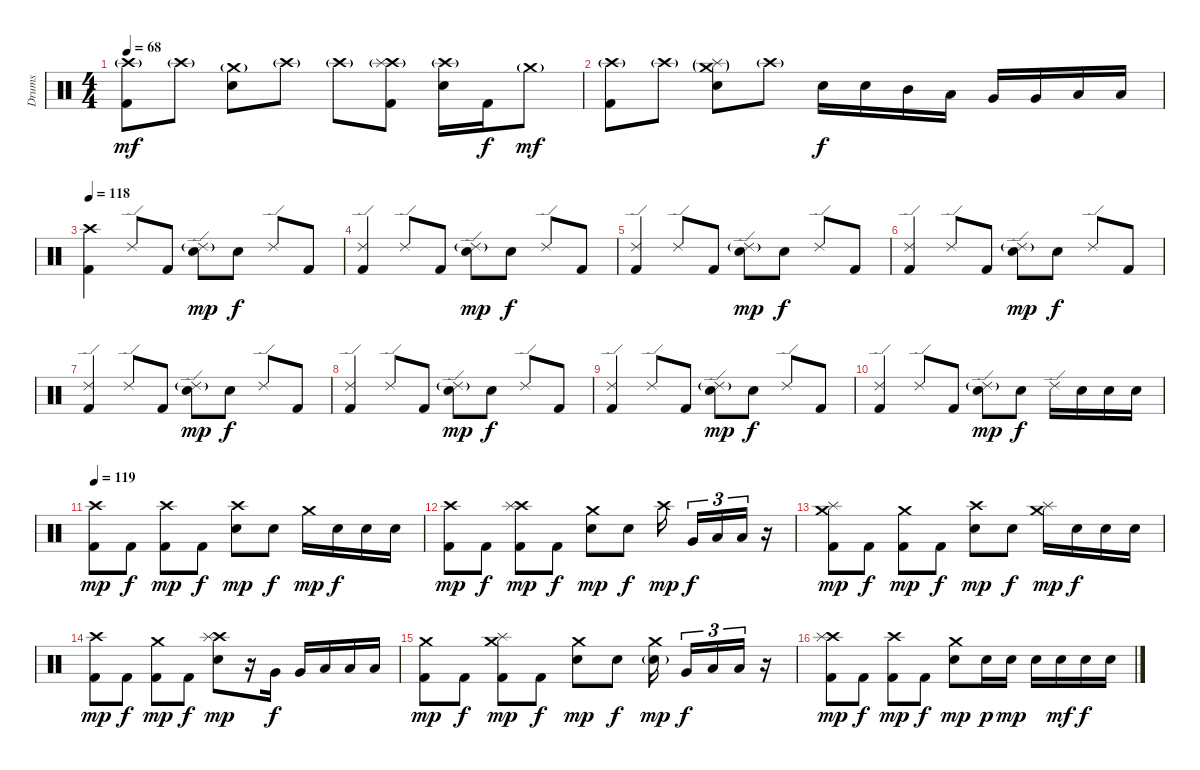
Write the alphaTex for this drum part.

\track ("Drums" "Drums") {instrument percussion}
\staff {score}
\articulation defaults
\ts (4 4)
\tempo 68
\clef neutral
\ks c
("Crash high (hit)"{g} "Kick (hit) 2").8{dy mf} "Crash high (hit)"{g}.8 ("Crash medium (hit)"{g} "Electric Snare (hit)").8 "Crash high (hit)"{g}.8 "Crash high (hit)"{g}.8 ("Crash high (hit)"{g} "Splash (hit)"{g} "Kick (hit) 2").8 ("Crash high (hit)"{g} "Electric Snare (hit)").16 "Kick (hit) 2".16{dy f} "Crash medium (hit)"{g}.8{dy mf} |
("Crash high (hit)"{g} "Kick (hit) 2").8 "Crash high (hit)"{g}.8 ("Crash medium (hit)"{g} "Splash (hit)"{g} "Electric Snare (hit)").8 "Crash high (hit)"{g}.8 "Electric Snare (hit)".16{dy f} "Electric Snare (hit)".16 "Mid Tom (hit)".16 "Low Tom (hit)".16 "Very Low Tom (hit)".16 "Very Low Tom (hit)".16 "Low Floor Tom (hit)".16 "Low Floor Tom (hit)".16 |
\tempo 118
("Crash high (hit)" "Kick (hit) 2").4 "Ride (edge) 2".8 "Kick (hit) 2".8 ("Ride (edge) 2"{g} "Electric Snare (hit)").8{dy mp} "Electric Snare (hit)".8{dy f} "Ride (edge) 2".8 "Kick (hit) 2".8 |
("Ride (edge) 2" "Kick (hit) 2").4 "Ride (edge) 2".8 "Kick (hit) 2".8 ("Ride (edge) 2"{g} "Electric Snare (hit)").8{dy mp} "Electric Snare (hit)".8{dy f} "Ride (edge) 2".8 "Kick (hit) 2".8 |
("Ride (edge) 2" "Kick (hit) 2").4 "Ride (edge) 2".8 "Kick (hit) 2".8 ("Ride (edge) 2"{g} "Electric Snare (hit)").8{dy mp} "Electric Snare (hit)".8{dy f} "Ride (edge) 2".8 "Kick (hit) 2".8 |
("Ride (edge) 2" "Kick (hit) 2").4 "Ride (edge) 2".8 "Kick (hit) 2".8 ("Ride (edge) 2"{g} "Electric Snare (hit)").8{dy mp} "Electric Snare (hit)".8{dy f} "Ride (edge) 2".8 "Kick (hit) 2".8 |
("Ride (edge) 2" "Kick (hit) 2").4 "Ride (edge) 2".8 "Kick (hit) 2".8 ("Ride (edge) 2"{g} "Electric Snare (hit)").8{dy mp} "Electric Snare (hit)".8{dy f} "Ride (edge) 2".8 "Kick (hit) 2".8 |
("Ride (edge) 2" "Kick (hit) 2").4 "Ride (edge) 2".8 "Kick (hit) 2".8 ("Ride (edge) 2"{g} "Electric Snare (hit)").8{dy mp} "Electric Snare (hit)".8{dy f} "Ride (edge) 2".8 "Kick (hit) 2".8 |
("Ride (edge) 2" "Kick (hit) 2").4 "Ride (edge) 2".8 "Kick (hit) 2".8 ("Ride (edge) 2"{g} "Electric Snare (hit)").8{dy mp} "Electric Snare (hit)".8{dy f} "Ride (edge) 2".8 "Kick (hit) 2".8 |
("Ride (edge) 2" "Kick (hit) 2").4 "Ride (edge) 2".8 "Kick (hit) 2".8 ("Ride (edge) 2"{g} "Electric Snare (hit)").8{dy mp} "Electric Snare (hit)".8{dy f} "Ride (edge) 2".16 "Electric Snare (hit)".16 "Electric Snare (hit)".16 "Electric Snare (hit)".16 |
\tempo 119
("Crash high (hit)" "Kick (hit) 2").8{dy mp} "Kick (hit) 2".8{dy f} ("Crash high (hit)" "Kick (hit) 2").8{dy mp} "Kick (hit) 2".8{dy f} ("Crash high (hit)" "Electric Snare (hit)").8{dy mp} "Electric Snare (hit)".8{dy f} "Crash medium (hit)".16{dy mp} "Electric Snare (hit)".16{dy f} "Electric Snare (hit)".16 "Electric Snare (hit)".16 |
("Crash high (hit)" "Kick (hit) 2").8{dy mp} "Kick (hit) 2".8{dy f} ("Crash high (hit)" "Splash (hit)" "Kick (hit) 2").8{dy mp} "Kick (hit) 2".8{dy f} ("Crash medium (hit)" "Electric Snare (hit)").8{dy mp} "Electric Snare (hit)".8{dy f} "Crash high (hit)".16{dy mp} "Very Low Tom (hit)".16{tu (3 2) dy f} "Low Floor Tom (hit)".16{tu (3 2)} "Low Floor Tom (hit)".16{tu (3 2)} r.16 |
("Crash medium (hit)" "Splash (hit)" "Kick (hit) 2").8{dy mp} "Kick (hit) 2".8{dy f} ("Crash medium (hit)" "Kick (hit) 2").8{dy mp} "Kick (hit) 2".8{dy f} ("Crash high (hit)" "Electric Snare (hit)").8{dy mp} "Electric Snare (hit)".8{dy f} ("Crash medium (hit)" "Splash (hit)").16{dy mp} "Electric Snare (hit)".16{dy f} "Electric Snare (hit)".16 "Electric Snare (hit)".16 |
("Crash high (hit)" "Kick (hit) 2").8{dy mp} "Kick (hit) 2".8{dy f} ("Crash medium (hit)" "Kick (hit) 2").8{dy mp} "Kick (hit) 2".8{dy f} ("Crash high (hit)" "Splash (hit)" "Electric Snare (hit)").8{dy mp} r.16 "Very Low Tom (hit)".16{dy f} "Very Low Tom (hit)".16 "Low Tom (hit)".16 "Low Floor Tom (hit)".16 "Low Floor Tom (hit)".16 |
("Crash medium (hit)" "Kick (hit) 2").8{dy mp} "Kick (hit) 2".8{dy f} ("Crash medium (hit)" "Splash (hit)" "Kick (hit) 2").8{dy mp} "Kick (hit) 2".8{dy f} ("Crash medium (hit)" "Electric Snare (hit)").8{dy mp} "Electric Snare (hit)".8{dy f} ("Crash medium (hit)" "Electric Snare (hit)"{g}).16{dy mp} "Very Low Tom (hit)".16{tu (3 2) dy f} "Low Floor Tom (hit)".16{tu (3 2)} "Low Tom (hit)".16{tu (3 2)} r.16 |
("Crash high (hit)" "Splash (hit)" "Kick (hit) 2").8{dy mp} "Kick (hit) 2".8{dy f} ("Crash high (hit)" "Kick (hit) 2").8{dy mp} "Kick (hit) 2".8{dy f} ("Crash medium (hit)" "Electric Snare (hit)").8{dy mp} "Electric Snare (hit)".16{dy p} "Electric Snare (hit)".16{dy mp} "Electric Snare (hit)".16 "Electric Snare (hit)".16{dy mf} "Electric Snare (hit)".16{dy f} "Electric Snare (hit)".16
